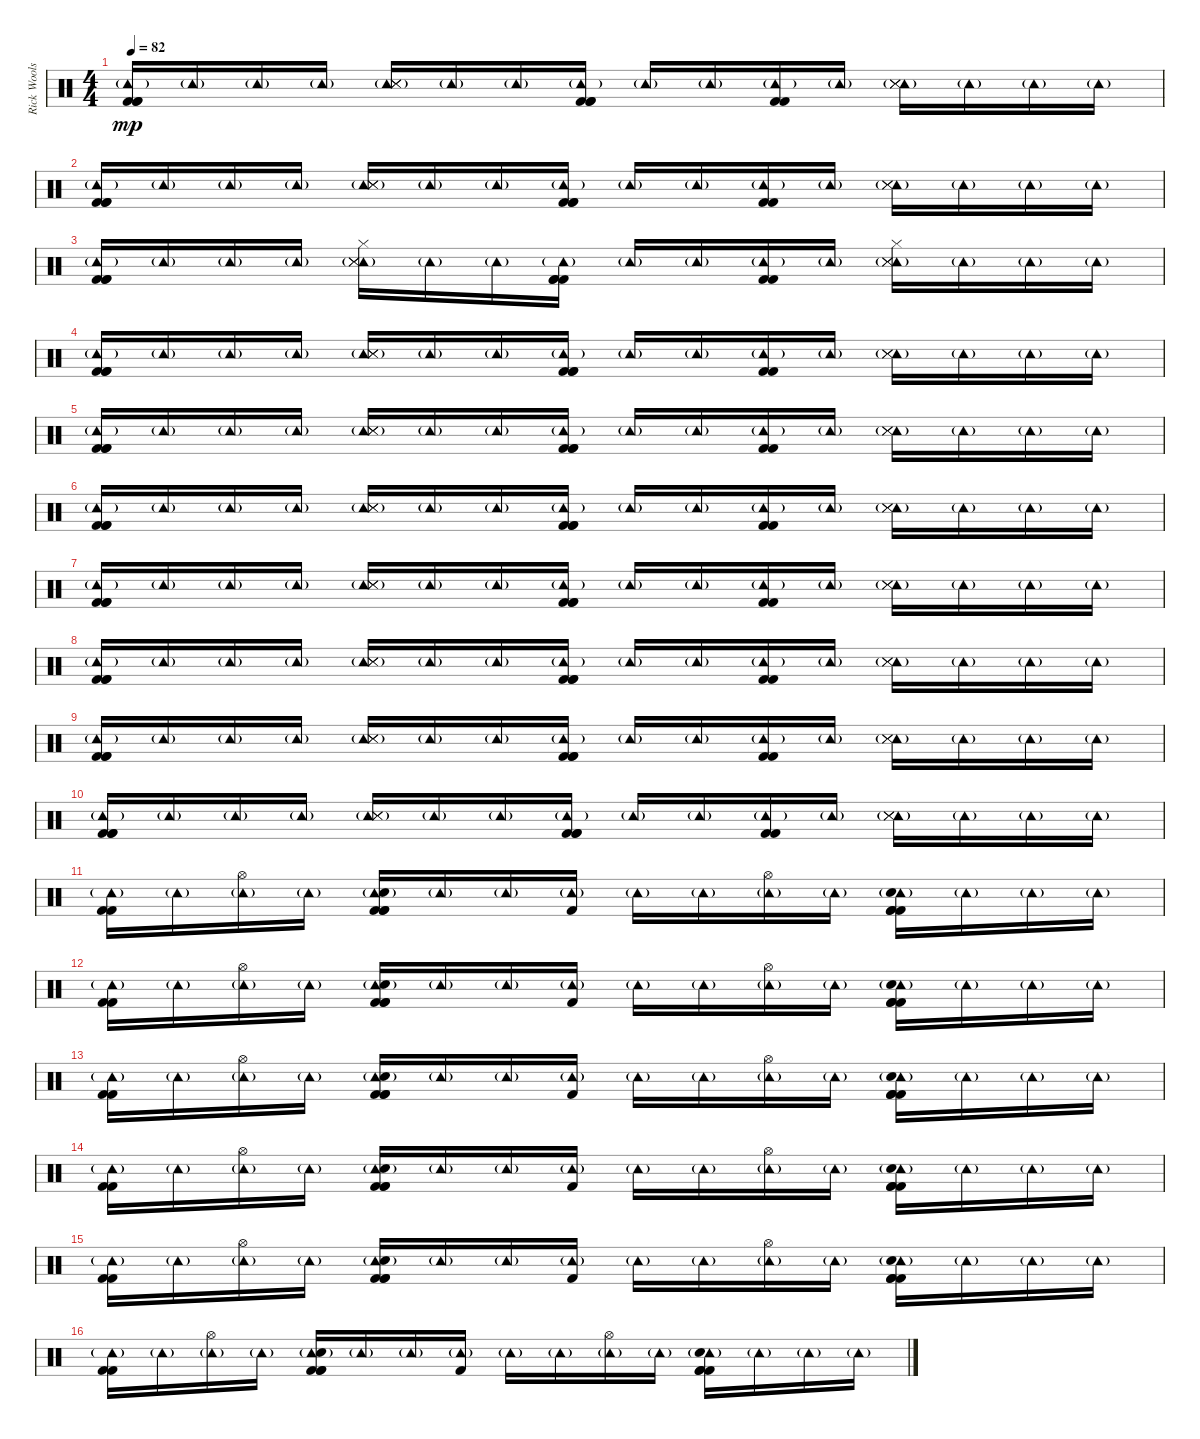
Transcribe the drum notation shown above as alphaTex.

\track ("Rick Woolstenhulme [Drums]" "Rick Wools") {instrument percussion}
\staff {score}
\articulation defaults
\ts (4 4)
\tempo 82
\clef neutral
\ks c
("Tambourine (hit)"{g} "Kick (hit) 2" "Kick (hit) 2" "Kick (hit) 2").16{dy mp} "Tambourine (hit)"{g}.16 "Tambourine (hit)"{g}.16 "Tambourine (hit)"{g}.16 ("Tambourine (hit)"{g} "Snare (side stick) 3" "Snare (side stick) 3" "Snare (side stick) 3").16 "Tambourine (hit)"{g}.16 "Tambourine (hit)"{g}.16 ("Tambourine (hit)"{g} "Kick (hit) 2" "Kick (hit) 2" "Kick (hit) 2").16 "Tambourine (hit)"{g}.16 "Tambourine (hit)"{g}.16 ("Tambourine (hit)"{g} "Kick (hit) 2" "Kick (hit) 2").16 "Tambourine (hit)"{g}.16 ("Tambourine (hit)"{g} "Snare (side stick) 3" "Snare (side stick) 3" "Snare (side stick) 3").16 "Tambourine (hit)"{g}.16 "Tambourine (hit)"{g}.16 "Tambourine (hit)"{g}.16 |
("Tambourine (hit)"{g} "Kick (hit) 2" "Kick (hit) 2" "Kick (hit) 2").16 "Tambourine (hit)"{g}.16 "Tambourine (hit)"{g}.16 "Tambourine (hit)"{g}.16 ("Tambourine (hit)"{g} "Snare (side stick) 3" "Snare (side stick) 3" "Snare (side stick) 3").16 "Tambourine (hit)"{g}.16 "Tambourine (hit)"{g}.16 ("Tambourine (hit)"{g} "Kick (hit) 2" "Kick (hit) 2" "Kick (hit) 2").16 "Tambourine (hit)"{g}.16 "Tambourine (hit)"{g}.16 ("Tambourine (hit)"{g} "Kick (hit) 2" "Kick (hit) 2").16 "Tambourine (hit)"{g}.16 ("Tambourine (hit)"{g} "Snare (side stick) 3" "Snare (side stick) 3" "Snare (side stick) 3").16 "Tambourine (hit)"{g}.16 "Tambourine (hit)"{g}.16 "Tambourine (hit)"{g}.16 |
("Tambourine (hit)"{g} "Kick (hit) 2" "Kick (hit) 2" "Kick (hit) 2").16 "Tambourine (hit)"{g}.16 "Tambourine (hit)"{g}.16 "Tambourine (hit)"{g}.16 ("Tambourine (hit)"{g} "Hi-Hat (closed)" "Snare (side stick) 3" "Snare (side stick) 3" "Snare (side stick) 3").16 "Tambourine (hit)"{g}.16 "Tambourine (hit)"{g}.16 ("Tambourine (hit)"{g} "Kick (hit) 2" "Kick (hit) 2" "Kick (hit) 2").16 "Tambourine (hit)"{g}.16 "Tambourine (hit)"{g}.16 ("Tambourine (hit)"{g} "Kick (hit) 2" "Kick (hit) 2").16 "Tambourine (hit)"{g}.16 ("Tambourine (hit)"{g} "Hi-Hat (closed)" "Snare (side stick) 3" "Snare (side stick) 3" "Snare (side stick) 3").16 "Tambourine (hit)"{g}.16 "Tambourine (hit)"{g}.16 "Tambourine (hit)"{g}.16 |
("Tambourine (hit)"{g} "Kick (hit) 2" "Kick (hit) 2" "Kick (hit) 2").16 "Tambourine (hit)"{g}.16 "Tambourine (hit)"{g}.16 "Tambourine (hit)"{g}.16 ("Tambourine (hit)"{g} "Snare (side stick) 3" "Snare (side stick) 3" "Snare (side stick) 3").16 "Tambourine (hit)"{g}.16 "Tambourine (hit)"{g}.16 ("Tambourine (hit)"{g} "Kick (hit) 2" "Kick (hit) 2" "Kick (hit) 2").16 "Tambourine (hit)"{g}.16 "Tambourine (hit)"{g}.16 ("Tambourine (hit)"{g} "Kick (hit) 2" "Kick (hit) 2").16 "Tambourine (hit)"{g}.16 ("Tambourine (hit)"{g} "Snare (side stick) 3" "Snare (side stick) 3" "Snare (side stick) 3").16 "Tambourine (hit)"{g}.16 "Tambourine (hit)"{g}.16 "Tambourine (hit)"{g}.16 |
("Tambourine (hit)"{g} "Kick (hit) 2" "Kick (hit) 2" "Kick (hit) 2").16 "Tambourine (hit)"{g}.16 "Tambourine (hit)"{g}.16 "Tambourine (hit)"{g}.16 ("Tambourine (hit)"{g} "Snare (side stick) 3" "Snare (side stick) 3" "Snare (side stick) 3").16 "Tambourine (hit)"{g}.16 "Tambourine (hit)"{g}.16 ("Tambourine (hit)"{g} "Kick (hit) 2" "Kick (hit) 2" "Kick (hit) 2").16 "Tambourine (hit)"{g}.16 "Tambourine (hit)"{g}.16 ("Tambourine (hit)"{g} "Kick (hit) 2" "Kick (hit) 2").16 "Tambourine (hit)"{g}.16 ("Tambourine (hit)"{g} "Snare (side stick) 3" "Snare (side stick) 3" "Snare (side stick) 3").16 "Tambourine (hit)"{g}.16 "Tambourine (hit)"{g}.16 "Tambourine (hit)"{g}.16 |
("Tambourine (hit)"{g} "Kick (hit) 2" "Kick (hit) 2" "Kick (hit) 2").16 "Tambourine (hit)"{g}.16 "Tambourine (hit)"{g}.16 "Tambourine (hit)"{g}.16 ("Tambourine (hit)"{g} "Snare (side stick) 3" "Snare (side stick) 3" "Snare (side stick) 3").16 "Tambourine (hit)"{g}.16 "Tambourine (hit)"{g}.16 ("Tambourine (hit)"{g} "Kick (hit) 2" "Kick (hit) 2" "Kick (hit) 2").16 "Tambourine (hit)"{g}.16 "Tambourine (hit)"{g}.16 ("Tambourine (hit)"{g} "Kick (hit) 2" "Kick (hit) 2").16 "Tambourine (hit)"{g}.16 ("Tambourine (hit)"{g} "Snare (side stick) 3" "Snare (side stick) 3" "Snare (side stick) 3").16 "Tambourine (hit)"{g}.16 "Tambourine (hit)"{g}.16 "Tambourine (hit)"{g}.16 |
("Tambourine (hit)"{g} "Kick (hit) 2" "Kick (hit) 2" "Kick (hit) 2").16 "Tambourine (hit)"{g}.16 "Tambourine (hit)"{g}.16 "Tambourine (hit)"{g}.16 ("Tambourine (hit)"{g} "Snare (side stick) 3" "Snare (side stick) 3" "Snare (side stick) 3").16 "Tambourine (hit)"{g}.16 "Tambourine (hit)"{g}.16 ("Tambourine (hit)"{g} "Kick (hit) 2" "Kick (hit) 2" "Kick (hit) 2").16 "Tambourine (hit)"{g}.16 "Tambourine (hit)"{g}.16 ("Tambourine (hit)"{g} "Kick (hit) 2" "Kick (hit) 2").16 "Tambourine (hit)"{g}.16 ("Tambourine (hit)"{g} "Snare (side stick) 3" "Snare (side stick) 3" "Snare (side stick) 3").16 "Tambourine (hit)"{g}.16 "Tambourine (hit)"{g}.16 "Tambourine (hit)"{g}.16 |
("Tambourine (hit)"{g} "Kick (hit) 2" "Kick (hit) 2" "Kick (hit) 2").16 "Tambourine (hit)"{g}.16 "Tambourine (hit)"{g}.16 "Tambourine (hit)"{g}.16 ("Tambourine (hit)"{g} "Snare (side stick) 3" "Snare (side stick) 3" "Snare (side stick) 3").16 "Tambourine (hit)"{g}.16 "Tambourine (hit)"{g}.16 ("Tambourine (hit)"{g} "Kick (hit) 2" "Kick (hit) 2" "Kick (hit) 2").16 "Tambourine (hit)"{g}.16 "Tambourine (hit)"{g}.16 ("Tambourine (hit)"{g} "Kick (hit) 2" "Kick (hit) 2").16 "Tambourine (hit)"{g}.16 ("Tambourine (hit)"{g} "Snare (side stick) 3" "Snare (side stick) 3" "Snare (side stick) 3").16 "Tambourine (hit)"{g}.16 "Tambourine (hit)"{g}.16 "Tambourine (hit)"{g}.16 |
("Tambourine (hit)"{g} "Kick (hit) 2" "Kick (hit) 2" "Kick (hit) 2").16 "Tambourine (hit)"{g}.16 "Tambourine (hit)"{g}.16 "Tambourine (hit)"{g}.16 ("Tambourine (hit)"{g} "Snare (side stick) 3" "Snare (side stick) 3" "Snare (side stick) 3").16 "Tambourine (hit)"{g}.16 "Tambourine (hit)"{g}.16 ("Tambourine (hit)"{g} "Kick (hit) 2" "Kick (hit) 2" "Kick (hit) 2").16 "Tambourine (hit)"{g}.16 "Tambourine (hit)"{g}.16 ("Tambourine (hit)"{g} "Kick (hit) 2" "Kick (hit) 2").16 "Tambourine (hit)"{g}.16 ("Tambourine (hit)"{g} "Snare (side stick) 3" "Snare (side stick) 3" "Snare (side stick) 3").16 "Tambourine (hit)"{g}.16 "Tambourine (hit)"{g}.16 "Tambourine (hit)"{g}.16 |
("Tambourine (hit)"{g} "Kick (hit) 2" "Kick (hit) 2" "Kick (hit) 2").16 "Tambourine (hit)"{g}.16 "Tambourine (hit)"{g}.16 "Tambourine (hit)"{g}.16 ("Tambourine (hit)"{g} "Snare (side stick) 3" "Snare (side stick) 3" "Snare (side stick) 3").16 "Tambourine (hit)"{g}.16 "Tambourine (hit)"{g}.16 ("Tambourine (hit)"{g} "Kick (hit) 2" "Kick (hit) 2" "Kick (hit) 2").16 "Tambourine (hit)"{g}.16 "Tambourine (hit)"{g}.16 ("Tambourine (hit)"{g} "Kick (hit) 2" "Kick (hit) 2").16 "Tambourine (hit)"{g}.16 ("Tambourine (hit)"{g} "Snare (side stick) 3" "Snare (side stick) 3" "Snare (side stick) 3").16 "Tambourine (hit)"{g}.16 "Tambourine (hit)"{g}.16 "Tambourine (hit)"{g}.16 |
("Tambourine (hit)"{g} "Kick (hit) 2" "Kick (hit) 2").16{volume 12} "Tambourine (hit)"{g}.16 ("Tambourine (hit)"{g} "Hi-Hat (open)").16 "Tambourine (hit)"{g}.16 ("Tambourine (hit)"{g} "Kick (hit) 2" "Kick (hit) 2" "Kick (hit) 2" "Snare (hit) 2").16 "Tambourine (hit)"{g}.16 "Tambourine (hit)"{g}.16 ("Tambourine (hit)"{g} "Kick (hit) 2").16 "Tambourine (hit)"{g}.16 "Tambourine (hit)"{g}.16 ("Tambourine (hit)"{g} "Hi-Hat (open)").16 "Tambourine (hit)"{g}.16 ("Tambourine (hit)"{g} "Kick (hit) 2" "Kick (hit) 2" "Kick (hit) 2" "Snare (hit) 2").16 "Tambourine (hit)"{g}.16 "Tambourine (hit)"{g}.16 "Tambourine (hit)"{g}.16 |
("Tambourine (hit)"{g} "Kick (hit) 2" "Kick (hit) 2").16 "Tambourine (hit)"{g}.16 ("Tambourine (hit)"{g} "Hi-Hat (open)").16 "Tambourine (hit)"{g}.16 ("Tambourine (hit)"{g} "Kick (hit) 2" "Kick (hit) 2" "Kick (hit) 2" "Snare (hit) 2").16 "Tambourine (hit)"{g}.16 "Tambourine (hit)"{g}.16 ("Tambourine (hit)"{g} "Kick (hit) 2").16 "Tambourine (hit)"{g}.16 "Tambourine (hit)"{g}.16 ("Tambourine (hit)"{g} "Hi-Hat (open)").16 "Tambourine (hit)"{g}.16 ("Tambourine (hit)"{g} "Kick (hit) 2" "Kick (hit) 2" "Kick (hit) 2" "Snare (hit) 2").16 "Tambourine (hit)"{g}.16 "Tambourine (hit)"{g}.16 "Tambourine (hit)"{g}.16 |
("Tambourine (hit)"{g} "Kick (hit) 2" "Kick (hit) 2").16 "Tambourine (hit)"{g}.16 ("Tambourine (hit)"{g} "Hi-Hat (open)").16 "Tambourine (hit)"{g}.16 ("Tambourine (hit)"{g} "Kick (hit) 2" "Kick (hit) 2" "Kick (hit) 2" "Snare (hit) 2").16 "Tambourine (hit)"{g}.16 "Tambourine (hit)"{g}.16 ("Tambourine (hit)"{g} "Kick (hit) 2").16 "Tambourine (hit)"{g}.16 "Tambourine (hit)"{g}.16 ("Tambourine (hit)"{g} "Hi-Hat (open)").16 "Tambourine (hit)"{g}.16 ("Tambourine (hit)"{g} "Kick (hit) 2" "Kick (hit) 2" "Kick (hit) 2" "Snare (hit) 2").16 "Tambourine (hit)"{g}.16 "Tambourine (hit)"{g}.16 "Tambourine (hit)"{g}.16 |
("Tambourine (hit)"{g} "Kick (hit) 2" "Kick (hit) 2").16 "Tambourine (hit)"{g}.16 ("Tambourine (hit)"{g} "Hi-Hat (open)").16 "Tambourine (hit)"{g}.16 ("Tambourine (hit)"{g} "Kick (hit) 2" "Kick (hit) 2" "Kick (hit) 2" "Snare (hit) 2").16 "Tambourine (hit)"{g}.16 "Tambourine (hit)"{g}.16 ("Tambourine (hit)"{g} "Kick (hit) 2").16 "Tambourine (hit)"{g}.16 "Tambourine (hit)"{g}.16 ("Tambourine (hit)"{g} "Hi-Hat (open)").16 "Tambourine (hit)"{g}.16 ("Tambourine (hit)"{g} "Kick (hit) 2" "Kick (hit) 2" "Kick (hit) 2" "Snare (hit) 2").16 "Tambourine (hit)"{g}.16 "Tambourine (hit)"{g}.16 "Tambourine (hit)"{g}.16 |
("Tambourine (hit)"{g} "Kick (hit) 2" "Kick (hit) 2").16{volume 14} "Tambourine (hit)"{g}.16 ("Tambourine (hit)"{g} "Hi-Hat (open)").16 "Tambourine (hit)"{g}.16 ("Tambourine (hit)"{g} "Kick (hit) 2" "Kick (hit) 2" "Kick (hit) 2" "Snare (hit) 2").16 "Tambourine (hit)"{g}.16 "Tambourine (hit)"{g}.16 ("Tambourine (hit)"{g} "Kick (hit) 2").16 "Tambourine (hit)"{g}.16 "Tambourine (hit)"{g}.16 ("Tambourine (hit)"{g} "Hi-Hat (open)").16 "Tambourine (hit)"{g}.16 ("Tambourine (hit)"{g} "Kick (hit) 2" "Kick (hit) 2" "Kick (hit) 2" "Snare (hit) 2").16 "Tambourine (hit)"{g}.16 "Tambourine (hit)"{g}.16 "Tambourine (hit)"{g}.16 |
("Tambourine (hit)"{g} "Kick (hit) 2" "Kick (hit) 2").16 "Tambourine (hit)"{g}.16 ("Tambourine (hit)"{g} "Hi-Hat (open)").16 "Tambourine (hit)"{g}.16 ("Tambourine (hit)"{g} "Kick (hit) 2" "Kick (hit) 2" "Kick (hit) 2" "Snare (hit) 2").16 "Tambourine (hit)"{g}.16 "Tambourine (hit)"{g}.16 ("Tambourine (hit)"{g} "Kick (hit) 2").16 "Tambourine (hit)"{g}.16 "Tambourine (hit)"{g}.16 ("Tambourine (hit)"{g} "Hi-Hat (open)").16 "Tambourine (hit)"{g}.16 ("Tambourine (hit)"{g} "Kick (hit) 2" "Kick (hit) 2" "Kick (hit) 2" "Snare (hit) 2").16 "Tambourine (hit)"{g}.16 "Tambourine (hit)"{g}.16 "Tambourine (hit)"{g}.16
